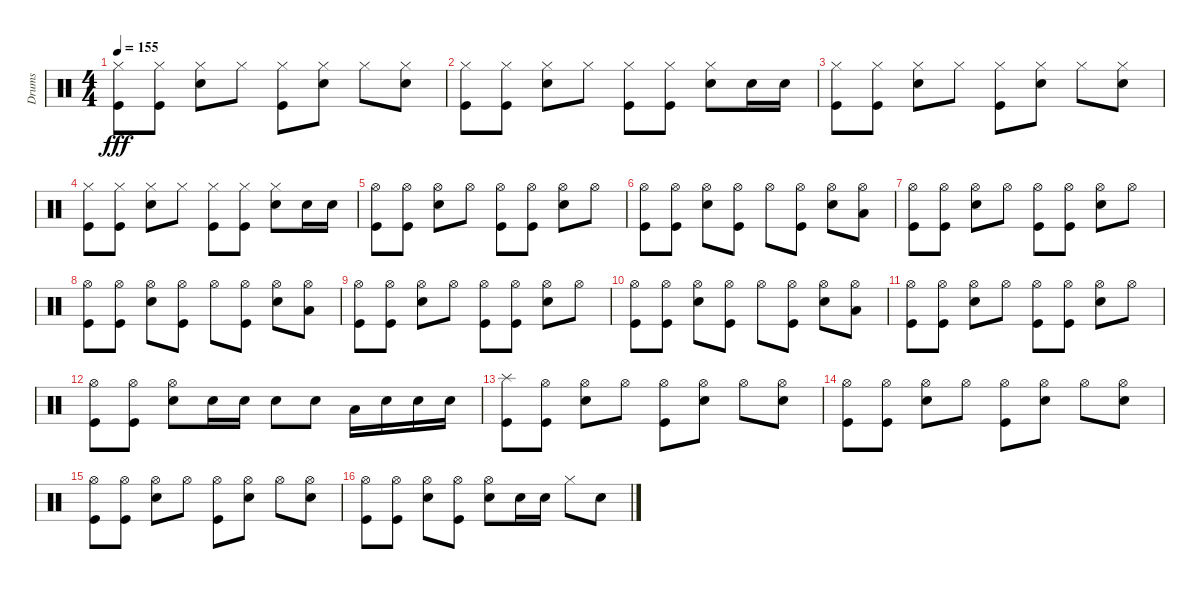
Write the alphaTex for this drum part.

\track ("Drums" "Drums") {instrument percussion}
\staff {score}
\articulation defaults
\ts (4 4)
\tempo 155
\clef neutral
\ks c
("Hi-Hat (closed)" "Kick (hit)").8{dy fff} ("Hi-Hat (closed)" "Kick (hit)").8 ("Hi-Hat (closed)" "Snare (hit) 2").8 "Hi-Hat (closed)".8 ("Hi-Hat (closed)" "Kick (hit)").8 ("Hi-Hat (closed)" "Snare (hit) 2").8 "Hi-Hat (closed)".8 ("Hi-Hat (closed)" "Snare (hit) 2").8 |
("Hi-Hat (closed)" "Kick (hit)").8 ("Hi-Hat (closed)" "Kick (hit)").8 ("Hi-Hat (closed)" "Snare (hit) 2").8 "Hi-Hat (closed)".8 ("Hi-Hat (closed)" "Kick (hit)").8 ("Hi-Hat (closed)" "Kick (hit)").8 ("Hi-Hat (closed)" "Snare (hit) 2").8 "Snare (hit) 2".16 "Snare (hit) 2".16 |
("Hi-Hat (closed)" "Kick (hit)").8 ("Hi-Hat (closed)" "Kick (hit)").8 ("Hi-Hat (closed)" "Snare (hit) 2").8 "Hi-Hat (closed)".8 ("Hi-Hat (closed)" "Kick (hit)").8 ("Hi-Hat (closed)" "Snare (hit) 2").8 "Hi-Hat (closed)".8 ("Hi-Hat (closed)" "Snare (hit) 2").8 |
("Hi-Hat (closed)" "Kick (hit)").8 ("Hi-Hat (closed)" "Kick (hit)").8 ("Hi-Hat (closed)" "Snare (hit) 2").8 "Hi-Hat (closed)".8 ("Hi-Hat (closed)" "Kick (hit)").8 ("Hi-Hat (closed)" "Kick (hit)").8 ("Hi-Hat (closed)" "Snare (hit) 2").8 "Snare (hit) 2".16 "Snare (hit) 2".16 |
("Hi-Hat (open)" "Kick (hit)").8 ("Hi-Hat (open)" "Kick (hit)").8 ("Hi-Hat (open)" "Snare (hit) 2").8 "Hi-Hat (open)".8 ("Hi-Hat (open)" "Kick (hit)").8 ("Hi-Hat (open)" "Kick (hit)").8 ("Hi-Hat (open)" "Snare (hit) 2").8 "Hi-Hat (open)".8 |
("Hi-Hat (open)" "Kick (hit)").8 ("Hi-Hat (open)" "Kick (hit)").8 ("Hi-Hat (open)" "Snare (hit) 2").8 ("Hi-Hat (open)" "Kick (hit)").8 "Hi-Hat (open)".8 ("Hi-Hat (open)" "Kick (hit)").8 ("Hi-Hat (open)" "Snare (hit) 2").8 ("Hi-Hat (open)" "Low Tom (hit)").8 |
("Hi-Hat (open)" "Kick (hit)").8 ("Hi-Hat (open)" "Kick (hit)").8 ("Hi-Hat (open)" "Snare (hit) 2").8 "Hi-Hat (open)".8 ("Hi-Hat (open)" "Kick (hit)").8 ("Hi-Hat (open)" "Kick (hit)").8 ("Hi-Hat (open)" "Snare (hit) 2").8 "Hi-Hat (open)".8 |
("Hi-Hat (open)" "Kick (hit)").8 ("Hi-Hat (open)" "Kick (hit)").8 ("Hi-Hat (open)" "Snare (hit) 2").8 ("Hi-Hat (open)" "Kick (hit)").8 "Hi-Hat (open)".8 ("Hi-Hat (open)" "Kick (hit)").8 ("Hi-Hat (open)" "Snare (hit) 2").8 ("Hi-Hat (open)" "Low Tom (hit)").8 |
("Hi-Hat (open)" "Kick (hit)").8 ("Hi-Hat (open)" "Kick (hit)").8 ("Hi-Hat (open)" "Snare (hit) 2").8 "Hi-Hat (open)".8 ("Hi-Hat (open)" "Kick (hit)").8 ("Hi-Hat (open)" "Kick (hit)").8 ("Hi-Hat (open)" "Snare (hit) 2").8 "Hi-Hat (open)".8 |
("Hi-Hat (open)" "Kick (hit)").8 ("Hi-Hat (open)" "Kick (hit)").8 ("Hi-Hat (open)" "Snare (hit) 2").8 ("Hi-Hat (open)" "Kick (hit)").8 "Hi-Hat (open)".8 ("Hi-Hat (open)" "Kick (hit)").8 ("Hi-Hat (open)" "Snare (hit) 2").8 ("Hi-Hat (open)" "Low Tom (hit)").8 |
("Hi-Hat (open)" "Kick (hit)").8 ("Hi-Hat (open)" "Kick (hit)").8 ("Hi-Hat (open)" "Snare (hit) 2").8 "Hi-Hat (open)".8 ("Hi-Hat (open)" "Kick (hit)").8 ("Hi-Hat (open)" "Kick (hit)").8 ("Hi-Hat (open)" "Snare (hit) 2").8 "Hi-Hat (open)".8 |
("Hi-Hat (open)" "Kick (hit)").8 ("Hi-Hat (open)" "Kick (hit)").8 ("Hi-Hat (open)" "Snare (hit) 2").8 "Snare (hit) 2".16 "Snare (hit) 2".16 "Snare (hit) 2".8 "Snare (hit) 2".8 "Low Tom (hit)".16 "Snare (hit) 2".16 "Snare (hit) 2".16 "Snare (hit) 2".16 |
("Splash (hit)" "Kick (hit)").8 ("Hi-Hat (open)" "Kick (hit)").8 ("Hi-Hat (open)" "Snare (hit) 2").8 "Hi-Hat (open)".8 ("Hi-Hat (open)" "Kick (hit)").8 ("Hi-Hat (open)" "Snare (hit) 2").8 "Hi-Hat (open)".8 ("Hi-Hat (open)" "Snare (hit) 2").8 |
("Hi-Hat (open)" "Kick (hit)").8 ("Hi-Hat (open)" "Kick (hit)").8 ("Hi-Hat (open)" "Snare (hit) 2").8 "Hi-Hat (open)".8 ("Hi-Hat (open)" "Kick (hit)").8 ("Hi-Hat (open)" "Snare (hit) 2").8 "Hi-Hat (open)".8 ("Hi-Hat (open)" "Snare (hit) 2").8 |
("Hi-Hat (open)" "Kick (hit)").8 ("Hi-Hat (open)" "Kick (hit)").8 ("Hi-Hat (open)" "Snare (hit) 2").8 "Hi-Hat (open)".8 ("Hi-Hat (open)" "Kick (hit)").8 ("Hi-Hat (open)" "Snare (hit) 2").8 "Hi-Hat (open)".8 ("Hi-Hat (open)" "Snare (hit) 2").8 |
("Hi-Hat (open)" "Kick (hit)").8 ("Hi-Hat (open)" "Kick (hit)").8 ("Hi-Hat (open)" "Snare (hit) 2").8 ("Hi-Hat (open)" "Kick (hit)").8 ("Hi-Hat (open)" "Snare (hit) 2").8 "Snare (hit) 2".16 "Snare (hit) 2".16 "Hi-Hat (closed)".8 "Snare (hit) 2".8
